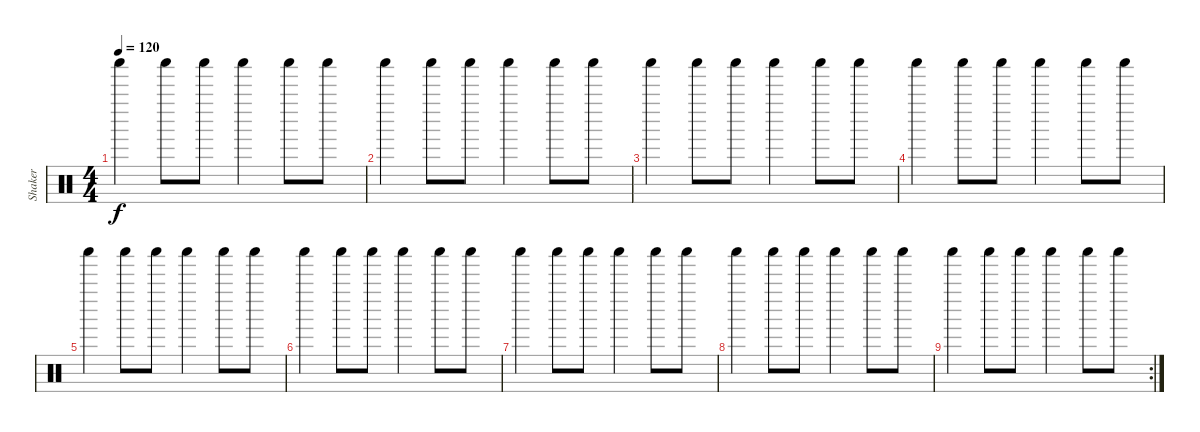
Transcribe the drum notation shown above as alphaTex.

\track ("Shaker" "Shaker") {instrument percussion}
\staff {score}
\articulation defaults
\ts (4 4)
\tempo 120
\clef neutral
\ks c "Shaker (hit)".4{dy f} "Shaker (hit)".8 "Shaker (hit)".8 "Shaker (hit)".4 "Shaker (hit)".8 "Shaker (hit)".8
|
"Shaker (hit)".4 "Shaker (hit)".8 "Shaker (hit)".8 "Shaker (hit)".4 "Shaker (hit)".8 "Shaker (hit)".8 |
"Shaker (hit)".4 "Shaker (hit)".8 "Shaker (hit)".8 "Shaker (hit)".4 "Shaker (hit)".8 "Shaker (hit)".8 |
"Shaker (hit)".4 "Shaker (hit)".8 "Shaker (hit)".8 "Shaker (hit)".4 "Shaker (hit)".8 "Shaker (hit)".8 |
"Shaker (hit)".4 "Shaker (hit)".8 "Shaker (hit)".8 "Shaker (hit)".4 "Shaker (hit)".8 "Shaker (hit)".8 |
"Shaker (hit)".4 "Shaker (hit)".8 "Shaker (hit)".8 "Shaker (hit)".4 "Shaker (hit)".8 "Shaker (hit)".8 |
"Shaker (hit)".4 "Shaker (hit)".8 "Shaker (hit)".8 "Shaker (hit)".4 "Shaker (hit)".8 "Shaker (hit)".8 |
"Shaker (hit)".4 "Shaker (hit)".8 "Shaker (hit)".8 "Shaker (hit)".4 "Shaker (hit)".8 "Shaker (hit)".8 |
\rc 2 "Shaker (hit)".4 "Shaker (hit)".8 "Shaker (hit)".8 "Shaker (hit)".4 "Shaker (hit)".8 "Shaker (hit)".8
